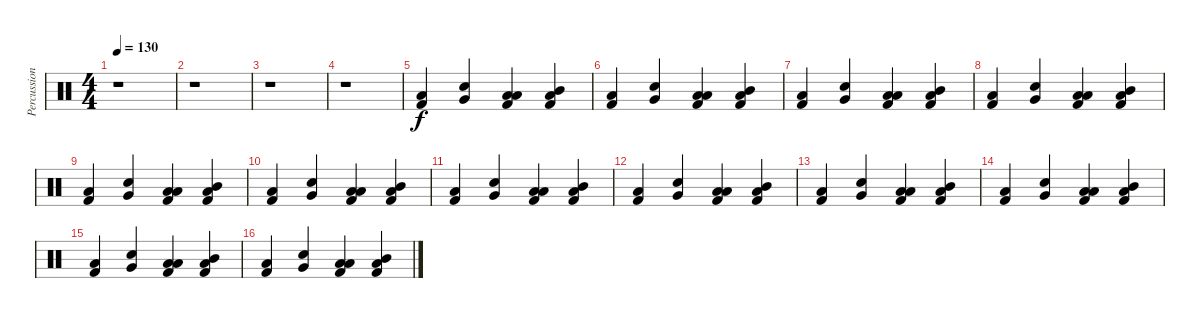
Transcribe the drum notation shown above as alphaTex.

\track ("Percussion" "Percussion") {instrument percussion}
\staff {score}
\articulation defaults
\ts (4 4)
\tempo 130
\clef neutral
\ks c
r.1{dy f} |
r.1 |
r.1 |
r.1 |
("Kick (hit) 2" "Low Floor Tom (hit)").4 ("Very Low Tom (hit)" "Snare (hit) 2").4 ("Low Floor Tom (hit)" "Kick (hit) 2" "Low Tom (hit)").4 ("Low Tom (hit)" "Kick (hit) 2" "Mid Tom (hit)").4 |
("Kick (hit) 2" "Low Floor Tom (hit)").4 ("Very Low Tom (hit)" "Snare (hit) 2").4 ("Low Floor Tom (hit)" "Kick (hit) 2" "Low Tom (hit)").4 ("Low Tom (hit)" "Kick (hit) 2" "Mid Tom (hit)").4 |
("Kick (hit) 2" "Low Floor Tom (hit)").4 ("Very Low Tom (hit)" "Snare (hit) 2").4 ("Low Floor Tom (hit)" "Kick (hit) 2" "Low Tom (hit)").4 ("Low Tom (hit)" "Kick (hit) 2" "Mid Tom (hit)").4 |
("Kick (hit) 2" "Low Floor Tom (hit)").4 ("Very Low Tom (hit)" "Snare (hit) 2").4 ("Low Floor Tom (hit)" "Kick (hit) 2" "Low Tom (hit)").4 ("Low Tom (hit)" "Kick (hit) 2" "Mid Tom (hit)").4 |
("Kick (hit) 2" "Low Floor Tom (hit)").4 ("Very Low Tom (hit)" "Snare (hit) 2").4 ("Low Floor Tom (hit)" "Kick (hit) 2" "Low Tom (hit)").4 ("Low Tom (hit)" "Kick (hit) 2" "Mid Tom (hit)").4 |
("Kick (hit) 2" "Low Floor Tom (hit)").4 ("Very Low Tom (hit)" "Snare (hit) 2").4 ("Low Floor Tom (hit)" "Kick (hit) 2" "Low Tom (hit)").4 ("Low Tom (hit)" "Kick (hit) 2" "Mid Tom (hit)").4 |
("Kick (hit) 2" "Low Floor Tom (hit)").4 ("Very Low Tom (hit)" "Snare (hit) 2").4 ("Low Floor Tom (hit)" "Kick (hit) 2" "Low Tom (hit)").4 ("Low Tom (hit)" "Kick (hit) 2" "Mid Tom (hit)").4 |
("Kick (hit) 2" "Low Floor Tom (hit)").4 ("Very Low Tom (hit)" "Snare (hit) 2").4 ("Low Floor Tom (hit)" "Kick (hit) 2" "Low Tom (hit)").4 ("Low Tom (hit)" "Kick (hit) 2" "Mid Tom (hit)").4 |
("Kick (hit) 2" "Low Floor Tom (hit)").4 ("Very Low Tom (hit)" "Snare (hit) 2").4 ("Low Floor Tom (hit)" "Kick (hit) 2" "Low Tom (hit)").4 ("Low Tom (hit)" "Kick (hit) 2" "Mid Tom (hit)").4 |
("Kick (hit) 2" "Low Floor Tom (hit)").4 ("Very Low Tom (hit)" "Snare (hit) 2").4 ("Low Floor Tom (hit)" "Kick (hit) 2" "Low Tom (hit)").4 ("Low Tom (hit)" "Kick (hit) 2" "Mid Tom (hit)").4 |
("Kick (hit) 2" "Low Floor Tom (hit)").4 ("Very Low Tom (hit)" "Snare (hit) 2").4 ("Low Floor Tom (hit)" "Kick (hit) 2" "Low Tom (hit)").4 ("Low Tom (hit)" "Kick (hit) 2" "Mid Tom (hit)").4 |
("Kick (hit) 2" "Low Floor Tom (hit)").4 ("Very Low Tom (hit)" "Snare (hit) 2").4 ("Low Floor Tom (hit)" "Kick (hit) 2" "Low Tom (hit)").4 ("Low Tom (hit)" "Kick (hit) 2" "Mid Tom (hit)").4
